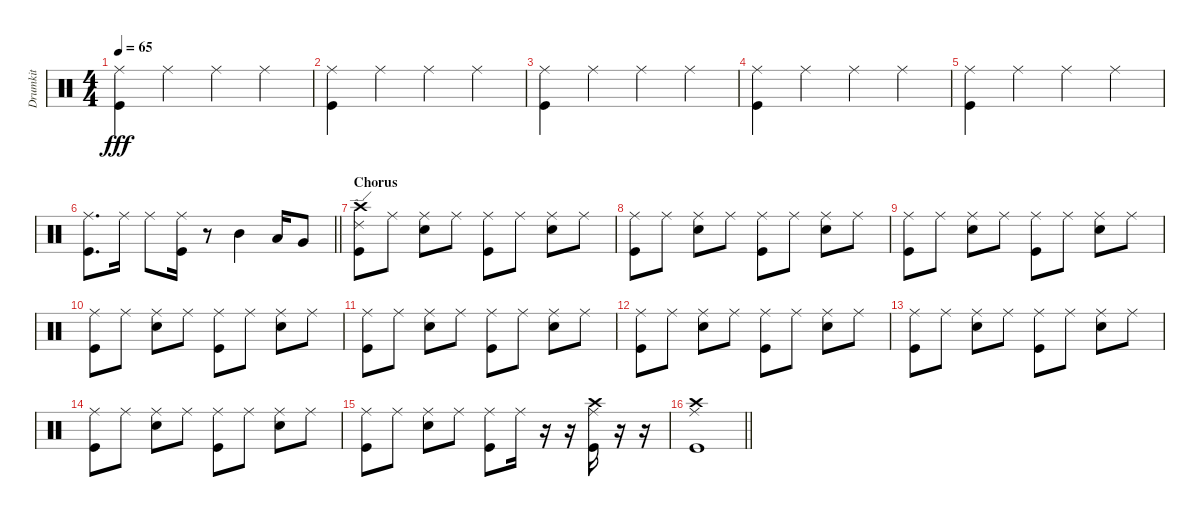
\track ("Drumkit" "Drumkit") {instrument percussion}
\staff {score}
\articulation defaults
\ts (4 4)
\tempo 65
\clef neutral
\ks c
("Kick (hit)" "Ride (middle)").4{dy fff} "Ride (middle)".4 "Ride (middle)".4 "Ride (middle)".4 |
("Ride (middle)" "Kick (hit)").4 "Ride (middle)".4 "Ride (middle)".4 "Ride (middle)".4 |
("Kick (hit)" "Ride (middle)").4 "Ride (middle)".4 "Ride (middle)".4 "Ride (middle)".4 |
("Ride (middle)" "Kick (hit)").4 "Ride (middle)".4 "Ride (middle)".4 "Ride (middle)".4 |
("Ride (middle)" "Kick (hit)").4 "Ride (middle)".4 "Ride (middle)".4 "Ride (middle)".4 |
\barLineRight lightlight
("Kick (hit)" "Ride (middle)").8{d} "Ride (middle)".16 "Ride (middle)".8 ("Kick (hit)" "Ride (middle)").16 r.8 "Mid Tom (hit)".4 "Low Tom (hit)".16 "Very Low Tom (hit)".8 |
\section ("" "Chorus")
("Kick (hit)" "Ride (edge) 2" "Crash high (hit)").8 "Ride (middle)".8 ("Ride (middle)" "Snare (hit) 2").8 "Ride (middle)".8 ("Ride (middle)" "Kick (hit)").8 "Ride (middle)".8 ("Snare (hit) 2" "Ride (middle)").8 "Ride (middle)".8 |
("Ride (middle)" "Kick (hit)").8 "Ride (middle)".8 ("Ride (middle)" "Snare (hit) 2").8 "Ride (middle)".8 ("Ride (middle)" "Kick (hit)").8 "Ride (middle)".8 ("Snare (hit) 2" "Ride (middle)").8 "Ride (middle)".8 |
("Ride (middle)" "Kick (hit)").8 "Ride (middle)".8 ("Ride (middle)" "Snare (hit) 2").8 "Ride (middle)".8 ("Ride (middle)" "Kick (hit)").8 "Ride (middle)".8 ("Snare (hit) 2" "Ride (middle)").8 "Ride (middle)".8 |
("Ride (middle)" "Kick (hit)").8 "Ride (middle)".8 ("Ride (middle)" "Snare (hit) 2").8 "Ride (middle)".8 ("Ride (middle)" "Kick (hit)").8 "Ride (middle)".8 ("Snare (hit) 2" "Ride (middle)").8 "Ride (middle)".8 |
("Ride (middle)" "Kick (hit)").8 "Ride (middle)".8 ("Ride (middle)" "Snare (hit) 2").8 "Ride (middle)".8 ("Ride (middle)" "Kick (hit)").8 "Ride (middle)".8 ("Snare (hit) 2" "Ride (middle)").8 "Ride (middle)".8 |
("Ride (middle)" "Kick (hit)").8 "Ride (middle)".8 ("Ride (middle)" "Snare (hit) 2").8 "Ride (middle)".8 ("Ride (middle)" "Kick (hit)").8 "Ride (middle)".8 ("Snare (hit) 2" "Ride (middle)").8 "Ride (middle)".8 |
("Ride (middle)" "Kick (hit)").8 "Ride (middle)".8 ("Ride (middle)" "Snare (hit) 2").8 "Ride (middle)".8 ("Ride (middle)" "Kick (hit)").8 "Ride (middle)".8 ("Snare (hit) 2" "Ride (middle)").8 "Ride (middle)".8 |
("Ride (middle)" "Kick (hit)").8 "Ride (middle)".8 ("Ride (middle)" "Snare (hit) 2").8 "Ride (middle)".8 ("Ride (middle)" "Kick (hit)").8 "Ride (middle)".8 ("Snare (hit) 2" "Ride (middle)").8 "Ride (middle)".8 |
("Kick (hit)" "Ride (middle)").8 "Ride (middle)".8 ("Ride (middle)" "Snare (hit) 2").8 "Ride (middle)".8 ("Ride (middle)" "Kick (hit)").8 "Ride (middle)".16 r.16 r.16 ("Crash high (hit)" "Ride (middle)" "Kick (hit)").16 r.16 r.16 |
\barLineRight lightlight
("Crash high (hit)" "Ride (middle)" "Kick (hit)").1
